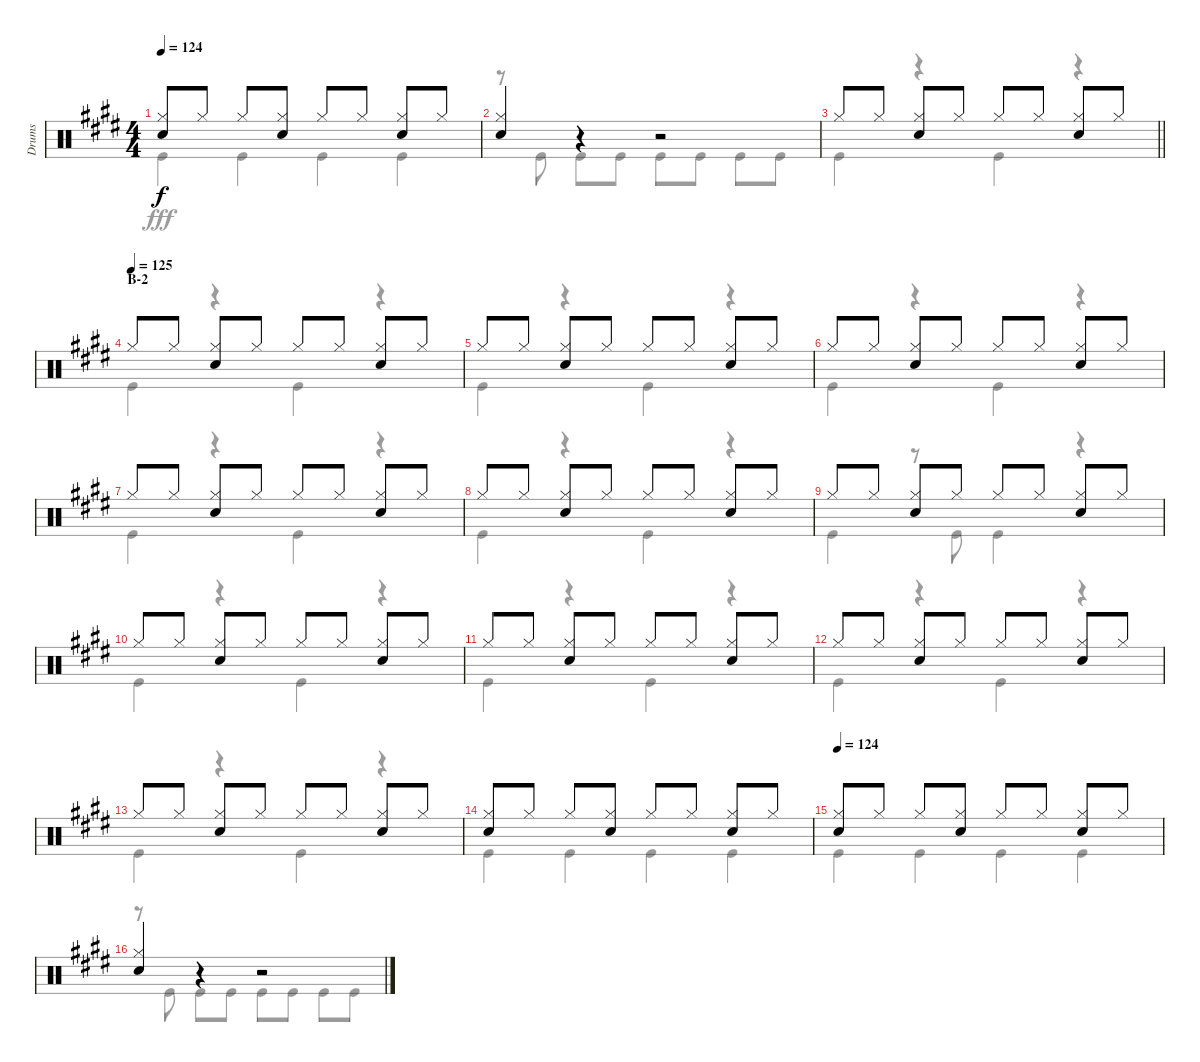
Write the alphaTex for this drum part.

\track ("Drums" "Drums") {instrument percussion}
\staff {score}
\articulation defaults
\voice
\ts (4 4)
\tempo 124
\clef neutral
\ks e
("Hi-Hat (closed)" "Snare (hit) 2").8{dy f} "Hi-Hat (closed)".8 "Hi-Hat (closed)".8 ("Hi-Hat (closed)" "Snare (hit) 2").8 "Hi-Hat (closed)".8 "Hi-Hat (closed)".8 ("Hi-Hat (closed)" "Snare (hit) 2").8 "Hi-Hat (closed)".8 |
("Hi-Hat (closed)" "Snare (hit) 2").4 r.4 r.2 |
\barLineRight lightlight "Hi-Hat (closed)".8 "Hi-Hat (closed)".8
("Hi-Hat (closed)" "Snare (hit) 2").8 "Hi-Hat (closed)".8 "Hi-Hat (closed)".8 "Hi-Hat (closed)".8 ("Hi-Hat (closed)" "Snare (hit) 2").8 "Hi-Hat (closed)".8 |
\section ("" "B-2")
\tempo (125)
"Hi-Hat (closed)".8 "Hi-Hat (closed)".8 ("Hi-Hat (closed)" "Snare (hit) 2").8 "Hi-Hat (closed)".8 "Hi-Hat (closed)".8 "Hi-Hat (closed)".8 ("Hi-Hat (closed)" "Snare (hit) 2").8 "Hi-Hat (closed)".8 |
"Hi-Hat (closed)".8 "Hi-Hat (closed)".8 ("Hi-Hat (closed)" "Snare (hit) 2").8 "Hi-Hat (closed)".8 "Hi-Hat (closed)".8 "Hi-Hat (closed)".8 ("Hi-Hat (closed)" "Snare (hit) 2").8 "Hi-Hat (closed)".8 |
"Hi-Hat (closed)".8 "Hi-Hat (closed)".8 ("Hi-Hat (closed)" "Snare (hit) 2").8 "Hi-Hat (closed)".8 "Hi-Hat (closed)".8 "Hi-Hat (closed)".8 ("Hi-Hat (closed)" "Snare (hit) 2").8 "Hi-Hat (closed)".8 |
"Hi-Hat (closed)".8 "Hi-Hat (closed)".8 ("Hi-Hat (closed)" "Snare (hit) 2").8 "Hi-Hat (closed)".8 "Hi-Hat (closed)".8 "Hi-Hat (closed)".8 ("Hi-Hat (closed)" "Snare (hit) 2").8 "Hi-Hat (closed)".8 |
"Hi-Hat (closed)".8 "Hi-Hat (closed)".8 ("Hi-Hat (closed)" "Snare (hit) 2").8 "Hi-Hat (closed)".8 "Hi-Hat (closed)".8 "Hi-Hat (closed)".8 ("Hi-Hat (closed)" "Snare (hit) 2").8 "Hi-Hat (closed)".8 |
"Hi-Hat (closed)".8 "Hi-Hat (closed)".8 ("Hi-Hat (closed)" "Snare (hit) 2").8 "Hi-Hat (closed)".8 "Hi-Hat (closed)".8 "Hi-Hat (closed)".8 ("Hi-Hat (closed)" "Snare (hit) 2").8 "Hi-Hat (closed)".8 |
"Hi-Hat (closed)".8 "Hi-Hat (closed)".8 ("Hi-Hat (closed)" "Snare (hit) 2").8 "Hi-Hat (closed)".8 "Hi-Hat (closed)".8 "Hi-Hat (closed)".8 ("Hi-Hat (closed)" "Snare (hit) 2").8 "Hi-Hat (closed)".8 |
"Hi-Hat (closed)".8 "Hi-Hat (closed)".8 ("Hi-Hat (closed)" "Snare (hit) 2").8 "Hi-Hat (closed)".8 "Hi-Hat (closed)".8 "Hi-Hat (closed)".8 ("Hi-Hat (closed)" "Snare (hit) 2").8 "Hi-Hat (closed)".8 |
"Hi-Hat (closed)".8 "Hi-Hat (closed)".8 ("Hi-Hat (closed)" "Snare (hit) 2").8 "Hi-Hat (closed)".8 "Hi-Hat (closed)".8 "Hi-Hat (closed)".8 ("Hi-Hat (closed)" "Snare (hit) 2").8 "Hi-Hat (closed)".8 |
"Hi-Hat (closed)".8 "Hi-Hat (closed)".8 ("Hi-Hat (closed)" "Snare (hit) 2").8 "Hi-Hat (closed)".8 "Hi-Hat (closed)".8 "Hi-Hat (closed)".8 ("Hi-Hat (closed)" "Snare (hit) 2").8 "Hi-Hat (closed)".8 |
("Hi-Hat (closed)" "Snare (hit) 2").8 "Hi-Hat (closed)".8 "Hi-Hat (closed)".8 ("Hi-Hat (closed)" "Snare (hit) 2").8 "Hi-Hat (closed)".8 "Hi-Hat (closed)".8 ("Hi-Hat (closed)" "Snare (hit) 2").8 "Hi-Hat (closed)".8 |
\tempo 124
("Hi-Hat (closed)" "Snare (hit) 2").8 "Hi-Hat (closed)".8 "Hi-Hat (closed)".8 ("Hi-Hat (closed)" "Snare (hit) 2").8 "Hi-Hat (closed)".8 "Hi-Hat (closed)".8 ("Hi-Hat (closed)" "Snare (hit) 2").8 "Hi-Hat (closed)".8 |
("Hi-Hat (closed)" "Snare (hit) 2").4 r.4 r.2
\voice
\clef neutral
\ottava regular
\simile none
\ks e "Kick (hit)".4{dy fff} "Kick (hit)".4 "Kick (hit)".4 "Kick (hit)".4
|
r.8 "Kick (hit)".8 "Kick (hit)".8 "Kick (hit)".8 "Kick (hit)".8 "Kick (hit)".8 "Kick (hit)".8 "Kick (hit)".8 |
\barLineRight lightlight "Kick (hit)".4
r.4 "Kick (hit)".4 r.4 |
"Kick (hit)".4 r.4 "Kick (hit)".4 r.4 |
"Kick (hit)".4 r.4 "Kick (hit)".4 r.4 |
"Kick (hit)".4 r.4 "Kick (hit)".4 r.4 |
"Kick (hit)".4 r.4 "Kick (hit)".4 r.4 |
"Kick (hit)".4 r.4 "Kick (hit)".4 r.4 |
"Kick (hit)".4 r.8 "Kick (hit)".8 "Kick (hit)".4 r.4 |
"Kick (hit)".4 r.4 "Kick (hit)".4 r.4 |
"Kick (hit)".4 r.4 "Kick (hit)".4 r.4 |
"Kick (hit)".4 r.4 "Kick (hit)".4 r.4 |
"Kick (hit)".4 r.4 "Kick (hit)".4 r.4 |
"Kick (hit)".4 "Kick (hit)".4 "Kick (hit)".4 "Kick (hit)".4 |
"Kick (hit)".4 "Kick (hit)".4 "Kick (hit)".4 "Kick (hit)".4 |
r.8 "Kick (hit)".8 "Kick (hit)".8 "Kick (hit)".8 "Kick (hit)".8 "Kick (hit)".8 "Kick (hit)".8 "Kick (hit)".8
